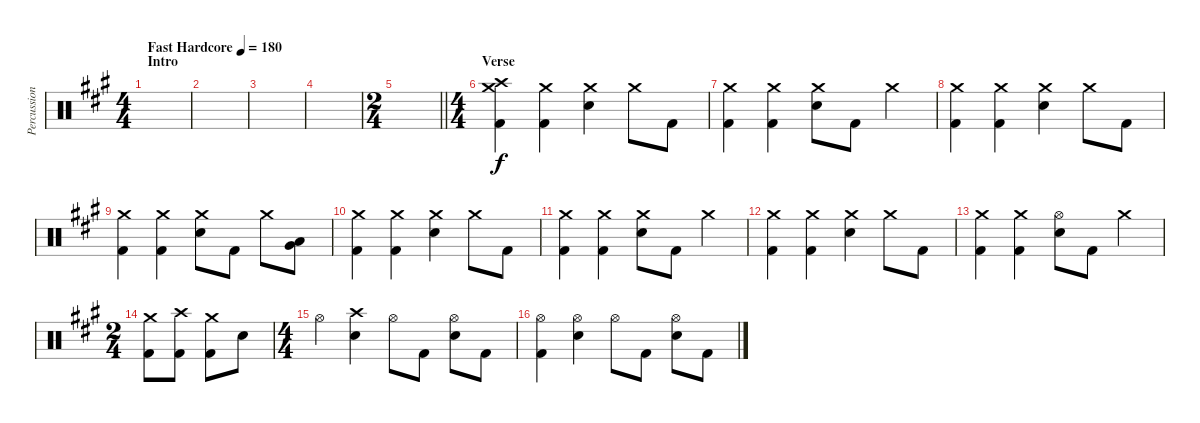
\track ("Percussion" "Percussion") {instrument percussion}
\staff {score}
\articulation defaults
\ts (4 4)
\section ("" "Intro")
\tempo (180 "Fast Hardcore")
\clef neutral
\ks f#minor
|
|
|
|
\ts (2 4)
\barLineRight lightlight
|
\ts (4 4)
\section ("" "Verse")
("Crash medium (hit)" "Crash high (hit)" "Kick (hit) 2").4 ("Crash medium (hit)" "Kick (hit) 2").4 ("Crash medium (hit)" "Electric Snare (hit)").4 "Crash medium (hit)".8 "Kick (hit) 2".8 |
("Crash medium (hit)" "Kick (hit) 2").4 ("Crash medium (hit)" "Kick (hit) 2").4 ("Crash medium (hit)" "Electric Snare (hit)").8 "Kick (hit) 2".8 "Crash medium (hit)".4 |
("Crash medium (hit)" "Kick (hit) 2").4 ("Crash medium (hit)" "Kick (hit) 2").4 ("Crash medium (hit)" "Electric Snare (hit)").4 "Crash medium (hit)".8 "Kick (hit) 2".8 |
("Crash medium (hit)" "Kick (hit) 2").4 ("Crash medium (hit)" "Kick (hit) 2").4 ("Crash medium (hit)" "Electric Snare (hit)").8 "Kick (hit) 2".8 "Crash medium (hit)".8 ("Very Low Tom (hit)" "Low Floor Tom (hit)").8 |
("Crash medium (hit)" "Kick (hit) 2").4 ("Crash medium (hit)" "Kick (hit) 2").4 ("Crash medium (hit)" "Electric Snare (hit)").4 "Crash medium (hit)".8 "Kick (hit) 2".8 |
("Crash medium (hit)" "Kick (hit) 2").4 ("Crash medium (hit)" "Kick (hit) 2").4 ("Crash medium (hit)" "Electric Snare (hit)").8 "Kick (hit) 2".8 "Crash medium (hit)".4 |
("Crash medium (hit)" "Kick (hit) 2").4 ("Crash medium (hit)" "Kick (hit) 2").4 ("Crash medium (hit)" "Electric Snare (hit)").4 "Crash medium (hit)".8 "Kick (hit) 2".8 |
("Crash medium (hit)" "Kick (hit) 2").4 ("Crash medium (hit)" "Kick (hit) 2").4 ("Hi-Hat (open)" "Electric Snare (hit)").8 "Kick (hit) 2".8 "Crash medium (hit)".4 |
\ts (2 4)
("Crash medium (hit)" "Kick (hit) 2").8 ("Crash high (hit)" "Kick (hit) 2").8 ("Crash medium (hit)" "Kick (hit) 2").8 "Electric Snare (hit)".8 |
\ts (4 4)
"Hi-Hat (open)".4 ("Crash high (hit)" "Electric Snare (hit)").4 "Hi-Hat (open)".8 "Kick (hit) 2".8 ("Hi-Hat (open)" "Electric Snare (hit)").8 "Kick (hit) 2".8 |
("Hi-Hat (open)" "Kick (hit) 2").4 ("Hi-Hat (open)" "Electric Snare (hit)").4 "Hi-Hat (open)".8 "Kick (hit) 2".8 ("Hi-Hat (open)" "Electric Snare (hit)").8 "Kick (hit) 2".8
